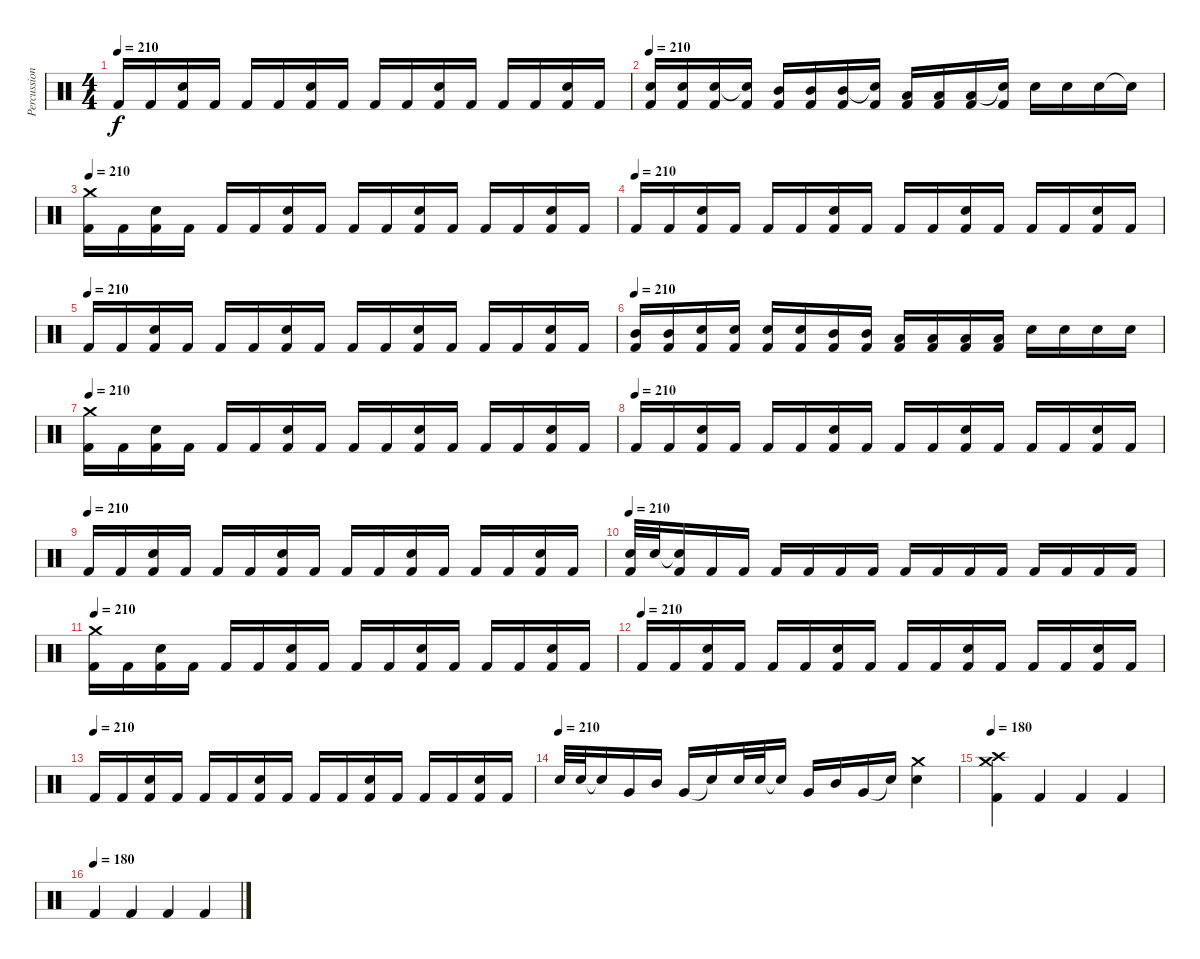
\track ("Percussion" "Percussion") {instrument percussion}
\staff {score}
\articulation defaults
\ts (4 4)
\tempo 210
\clef neutral
\ks c "Kick (hit) 2".16{dy f} "Kick (hit) 2".16
("Snare (hit) 2" "Kick (hit) 2").16 "Kick (hit) 2".16 "Kick (hit) 2".16 "Kick (hit) 2".16 ("Snare (hit) 2" "Kick (hit) 2").16 "Kick (hit) 2".16 "Kick (hit) 2".16 "Kick (hit) 2".16 ("Snare (hit) 2" "Kick (hit) 2").16 "Kick (hit) 2".16 "Kick (hit) 2".16 "Kick (hit) 2".16 ("Snare (hit) 2" "Kick (hit) 2").16 "Kick (hit) 2".16 |
\tempo 210
("Snare (hit) 2" "Kick (hit) 2").16 ("Snare (hit) 2" "Kick (hit) 2").16 ("Snare (hit) 2" "Kick (hit) 2").16 ("Snare (hit)"{t} "Kick (hit) 2").16 ("Mid Tom (hit)" "Kick (hit) 2").16 ("Mid Tom (hit)" "Kick (hit) 2").16 ("Mid Tom (hit)" "Kick (hit) 2").16 ("Snare (hit)"{t} "Kick (hit) 2").16 ("Low Tom (hit)" "Kick (hit) 2").16 ("Low Tom (hit)" "Kick (hit) 2").16 ("Low Tom (hit)" "Kick (hit) 2").16 ("Snare (hit)"{t} "Kick (hit) 2").16 "Snare (hit) 2".16 "Snare (hit) 2".16 "Snare (hit) 2".16 "Snare (hit) 2"{t}.16 |
\tempo 210
("Crash medium (hit)" "Kick (hit) 2").16 "Kick (hit) 2".16 ("Snare (hit) 2" "Kick (hit) 2").16 "Kick (hit) 2".16 "Kick (hit) 2".16 "Kick (hit) 2".16 ("Snare (hit) 2" "Kick (hit) 2").16 "Kick (hit) 2".16 "Kick (hit) 2".16 "Kick (hit) 2".16 ("Snare (hit) 2" "Kick (hit) 2").16 "Kick (hit) 2".16 "Kick (hit) 2".16 "Kick (hit) 2".16 ("Snare (hit) 2" "Kick (hit) 2").16 "Kick (hit) 2".16 |
\tempo (210)
"Kick (hit) 2".16 "Kick (hit) 2".16 ("Snare (hit) 2" "Kick (hit) 2").16 "Kick (hit) 2".16 "Kick (hit) 2".16 "Kick (hit) 2".16 ("Snare (hit) 2" "Kick (hit) 2").16 "Kick (hit) 2".16 "Kick (hit) 2".16 "Kick (hit) 2".16 ("Snare (hit) 2" "Kick (hit) 2").16 "Kick (hit) 2".16 "Kick (hit) 2".16 "Kick (hit) 2".16 ("Snare (hit) 2" "Kick (hit) 2").16 "Kick (hit) 2".16 |
\tempo (210)
"Kick (hit) 2".16 "Kick (hit) 2".16 ("Snare (hit) 2" "Kick (hit) 2").16 "Kick (hit) 2".16 "Kick (hit) 2".16 "Kick (hit) 2".16 ("Snare (hit) 2" "Kick (hit) 2").16 "Kick (hit) 2".16 "Kick (hit) 2".16 "Kick (hit) 2".16 ("Snare (hit) 2" "Kick (hit) 2").16 "Kick (hit) 2".16 "Kick (hit) 2".16 "Kick (hit) 2".16 ("Snare (hit) 2" "Kick (hit) 2").16 "Kick (hit) 2".16 |
\tempo 210
("Mid Tom (hit)" "Kick (hit) 2").16 ("Mid Tom (hit)" "Kick (hit) 2").16 ("Snare (hit) 2" "Kick (hit) 2").16 ("Snare (hit) 2" "Kick (hit) 2").16 ("Snare (hit) 2" "Kick (hit) 2").16 ("Snare (hit) 2" "Kick (hit) 2").16 ("Mid Tom (hit)" "Kick (hit) 2").16 ("Mid Tom (hit)" "Kick (hit) 2").16 ("Low Tom (hit)" "Kick (hit) 2").16 ("Low Tom (hit)" "Kick (hit) 2").16 ("Low Tom (hit)" "Kick (hit) 2").16 ("Low Tom (hit)" "Kick (hit) 2").16 "Snare (hit) 2".16 "Snare (hit) 2".16 "Snare (hit) 2".16 "Snare (hit) 2".16 |
\tempo 210
("Crash medium (hit)" "Kick (hit) 2").16 "Kick (hit) 2".16 ("Snare (hit) 2" "Kick (hit) 2").16 "Kick (hit) 2".16 "Kick (hit) 2".16 "Kick (hit) 2".16 ("Snare (hit) 2" "Kick (hit) 2").16 "Kick (hit) 2".16 "Kick (hit) 2".16 "Kick (hit) 2".16 ("Snare (hit) 2" "Kick (hit) 2").16 "Kick (hit) 2".16 "Kick (hit) 2".16 "Kick (hit) 2".16 ("Snare (hit) 2" "Kick (hit) 2").16 "Kick (hit) 2".16 |
\tempo (210)
"Kick (hit) 2".16 "Kick (hit) 2".16 ("Snare (hit) 2" "Kick (hit) 2").16 "Kick (hit) 2".16 "Kick (hit) 2".16 "Kick (hit) 2".16 ("Snare (hit) 2" "Kick (hit) 2").16 "Kick (hit) 2".16 "Kick (hit) 2".16 "Kick (hit) 2".16 ("Snare (hit) 2" "Kick (hit) 2").16 "Kick (hit) 2".16 "Kick (hit) 2".16 "Kick (hit) 2".16 ("Snare (hit) 2" "Kick (hit) 2").16 "Kick (hit) 2".16 |
\tempo (210)
"Kick (hit) 2".16 "Kick (hit) 2".16 ("Snare (hit) 2" "Kick (hit) 2").16 "Kick (hit) 2".16 "Kick (hit) 2".16 "Kick (hit) 2".16 ("Snare (hit) 2" "Kick (hit) 2").16 "Kick (hit) 2".16 "Kick (hit) 2".16 "Kick (hit) 2".16 ("Snare (hit) 2" "Kick (hit) 2").16 "Kick (hit) 2".16 "Kick (hit) 2".16 "Kick (hit) 2".16 ("Snare (hit) 2" "Kick (hit) 2").16 "Kick (hit) 2".16 |
\tempo 210
("Snare (hit) 2" "Kick (hit) 2").32 "Snare (hit) 2".32 ("Snare (hit)"{t} "Kick (hit) 2").16 "Kick (hit) 2".16 "Kick (hit) 2".16 "Kick (hit) 2".16 "Kick (hit) 2".16 "Kick (hit) 2".16 "Kick (hit) 2".16 "Kick (hit) 2".16 "Kick (hit) 2".16 "Kick (hit) 2".16 "Kick (hit) 2".16 "Kick (hit) 2".16 "Kick (hit) 2".16 "Kick (hit) 2".16 "Kick (hit) 2".16 |
\tempo 210
("Crash medium (hit)" "Kick (hit) 2").16 "Kick (hit) 2".16 ("Snare (hit) 2" "Kick (hit) 2").16 "Kick (hit) 2".16 "Kick (hit) 2".16 "Kick (hit) 2".16 ("Snare (hit) 2" "Kick (hit) 2").16 "Kick (hit) 2".16 "Kick (hit) 2".16 "Kick (hit) 2".16 ("Snare (hit) 2" "Kick (hit) 2").16 "Kick (hit) 2".16 "Kick (hit) 2".16 "Kick (hit) 2".16 ("Snare (hit) 2" "Kick (hit) 2").16 "Kick (hit) 2".16 |
\tempo (210)
"Kick (hit) 2".16 "Kick (hit) 2".16 ("Snare (hit) 2" "Kick (hit) 2").16 "Kick (hit) 2".16 "Kick (hit) 2".16 "Kick (hit) 2".16 ("Snare (hit) 2" "Kick (hit) 2").16 "Kick (hit) 2".16 "Kick (hit) 2".16 "Kick (hit) 2".16 ("Snare (hit) 2" "Kick (hit) 2").16 "Kick (hit) 2".16 "Kick (hit) 2".16 "Kick (hit) 2".16 ("Snare (hit) 2" "Kick (hit) 2").16 "Kick (hit) 2".16 |
\tempo (210)
"Kick (hit) 2".16 "Kick (hit) 2".16 ("Snare (hit) 2" "Kick (hit) 2").16 "Kick (hit) 2".16 "Kick (hit) 2".16 "Kick (hit) 2".16 ("Snare (hit) 2" "Kick (hit) 2").16 "Kick (hit) 2".16 "Kick (hit) 2".16 "Kick (hit) 2".16 ("Snare (hit) 2" "Kick (hit) 2").16 "Kick (hit) 2".16 "Kick (hit) 2".16 "Kick (hit) 2".16 ("Snare (hit) 2" "Kick (hit) 2").16 "Kick (hit) 2".16 |
\tempo (210)
"Snare (hit) 2".32 "Snare (hit) 2".32 "Snare (hit)"{t}.16 "Very Low Tom (hit)".16 "Mid Tom (hit)".16 "Very Low Tom (hit)".16 "Snare (hit)"{t}.16 "Snare (hit) 2".32 "Snare (hit) 2".32 "Snare (hit)"{t}.16 "Very Low Tom (hit)".16 "Mid Tom (hit)".16 "Very Low Tom (hit)".16 "Snare (hit)"{t}.16 ("Crash medium (hit)" "Snare (hit) 2").4 |
\tempo 180
("Crash high (hit)" "Crash medium (hit)" "Kick (hit) 2").4 "Kick (hit) 2".4 "Kick (hit) 2".4 "Kick (hit) 2".4 |
\tempo (180)
"Kick (hit) 2".4 "Kick (hit) 2".4 "Kick (hit) 2".4 "Kick (hit) 2".4
